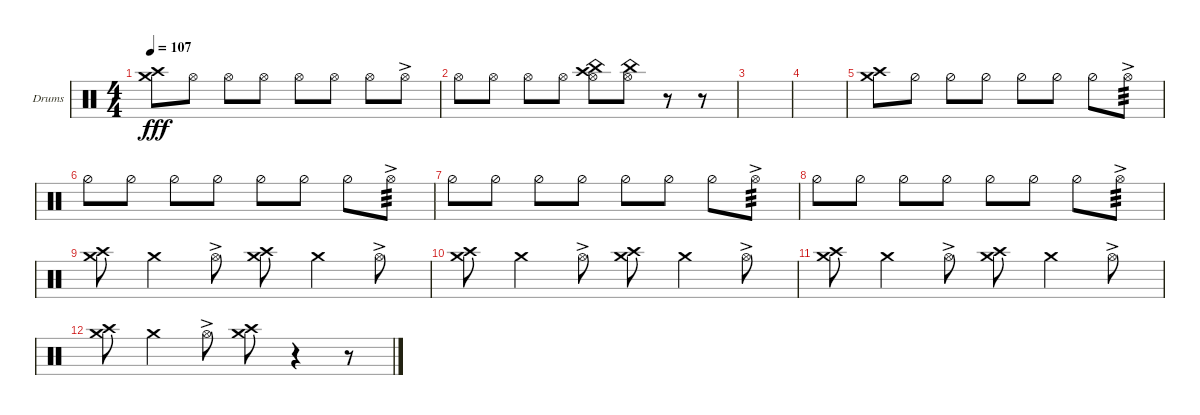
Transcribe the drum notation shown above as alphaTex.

\defaultSystemsLayout 4
\bracketExtendMode groupsimilarinstruments
\firstSystemTrackNameOrientation horizontal
\otherSystemsTrackNameOrientation horizontal
\track ("Helders" "Drums") {instrument percussion}
\staff {score}
\articulation defaults
\ts (4 4)
\tempo 107
\clef neutral
\ks c
("Crash medium (hit)" "Crash high (hit)").8{dy fff} "Hi-Hat (open)".8 "Hi-Hat (open)".8 "Hi-Hat (open)".8 "Hi-Hat (open)".8 "Hi-Hat (open)".8 "Hi-Hat (open)".8 "Hi-Hat (open)"{ac}.8 |
"Hi-Hat (open)".8 "Hi-Hat (open)".8 "Hi-Hat (open)".8 "Hi-Hat (open)".8 ("Hi-Hat (open)" "Crash high (hit)" "China (hit)").8 ("Hi-Hat (open)" "China (hit)").8 r.8 r.8 |
|
|
("Crash high (hit)" "Crash medium (hit)").8 "Hi-Hat (half)".8 "Hi-Hat (half)".8 "Hi-Hat (half)".8 "Hi-Hat (half)".8 "Hi-Hat (half)".8 "Hi-Hat (half)".8 "Hi-Hat (open)"{ac}.8{tp 3} |
"Hi-Hat (half)".8 "Hi-Hat (half)".8 "Hi-Hat (half)".8 "Hi-Hat (half)".8 "Hi-Hat (half)".8 "Hi-Hat (half)".8 "Hi-Hat (half)".8 "Hi-Hat (open)"{ac}.8{tp 3} |
"Hi-Hat (half)".8 "Hi-Hat (half)".8 "Hi-Hat (half)".8 "Hi-Hat (half)".8 "Hi-Hat (half)".8 "Hi-Hat (half)".8 "Hi-Hat (half)".8 "Hi-Hat (open)"{ac}.8{tp 3} |
"Hi-Hat (half)".8 "Hi-Hat (half)".8 "Hi-Hat (half)".8 "Hi-Hat (half)".8 "Hi-Hat (half)".8 "Hi-Hat (half)".8 "Hi-Hat (half)".8 "Hi-Hat (open)"{ac}.8{tp 3} |
("Crash high (hit)" "Crash medium (hit)").8 "Crash medium (hit)".4 "Hi-Hat (open)"{ac}.8 ("Crash high (hit)" "Crash medium (hit)").8 "Crash medium (hit)".4 "Hi-Hat (open)"{ac}.8 |
("Crash high (hit)" "Crash medium (hit)").8 "Crash medium (hit)".4 "Hi-Hat (open)"{ac}.8 ("Crash high (hit)" "Crash medium (hit)").8 "Crash medium (hit)".4 "Hi-Hat (open)"{ac}.8 |
("Crash high (hit)" "Crash medium (hit)").8 "Crash medium (hit)".4 "Hi-Hat (open)"{ac}.8 ("Crash high (hit)" "Crash medium (hit)").8 "Crash medium (hit)".4 "Hi-Hat (open)"{ac}.8 |
("Crash high (hit)" "Crash medium (hit)").8 "Crash medium (hit)".4 "Hi-Hat (open)"{ac}.8 ("Crash high (hit)" "Crash medium (hit)").8 r.4 r.8
